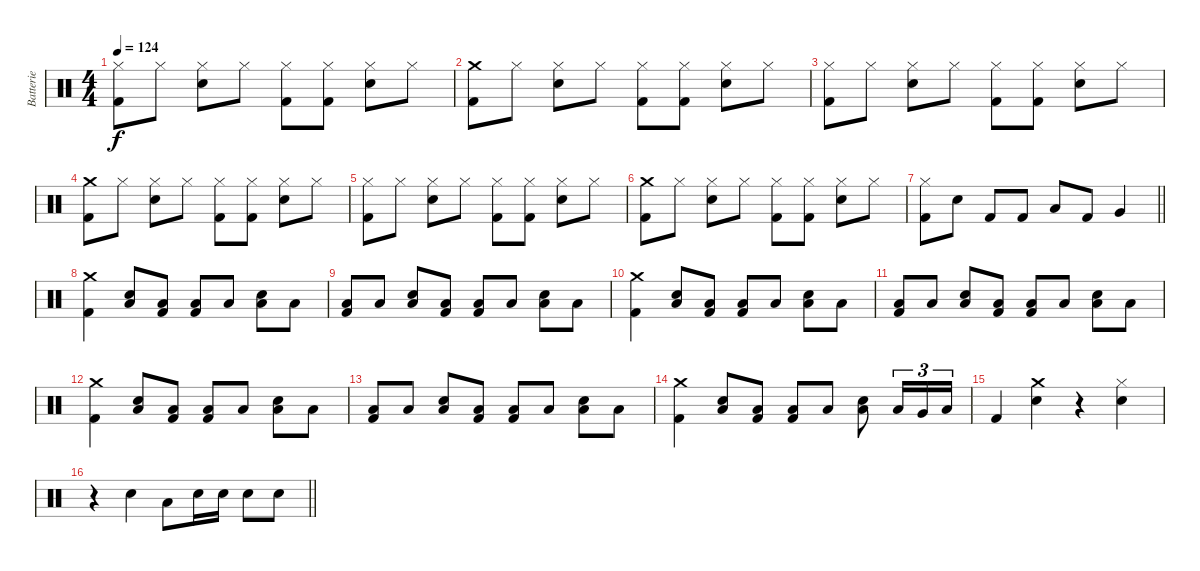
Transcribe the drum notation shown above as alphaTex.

\track ("Batterie" "Batterie") {instrument percussion}
\staff {score}
\articulation defaults
\ts (4 4)
\tempo 124
\clef neutral
\ks c
("Hi-Hat (closed)" "Kick (hit) 2").8{dy f} "Hi-Hat (closed)".8 ("Hi-Hat (closed)" "Snare (hit) 2").8 "Hi-Hat (closed)".8 ("Hi-Hat (closed)" "Kick (hit) 2").8 ("Hi-Hat (closed)" "Kick (hit) 2").8 ("Hi-Hat (closed)" "Snare (hit) 2").8 "Hi-Hat (closed)".8 |
("Crash medium (hit)" "Kick (hit) 2").8 "Hi-Hat (closed)".8 ("Hi-Hat (closed)" "Snare (hit) 2").8 "Hi-Hat (closed)".8 ("Hi-Hat (closed)" "Kick (hit) 2").8 ("Hi-Hat (closed)" "Kick (hit) 2").8 ("Hi-Hat (closed)" "Snare (hit) 2").8 "Hi-Hat (closed)".8 |
("Hi-Hat (closed)" "Kick (hit) 2").8 "Hi-Hat (closed)".8 ("Hi-Hat (closed)" "Snare (hit) 2").8 "Hi-Hat (closed)".8 ("Hi-Hat (closed)" "Kick (hit) 2").8 ("Hi-Hat (closed)" "Kick (hit) 2").8 ("Hi-Hat (closed)" "Snare (hit) 2").8 "Hi-Hat (closed)".8 |
("Crash medium (hit)" "Kick (hit) 2").8 "Hi-Hat (closed)".8 ("Hi-Hat (closed)" "Snare (hit) 2").8 "Hi-Hat (closed)".8 ("Hi-Hat (closed)" "Kick (hit) 2").8 ("Hi-Hat (closed)" "Kick (hit) 2").8 ("Hi-Hat (closed)" "Snare (hit) 2").8 "Hi-Hat (closed)".8 |
("Hi-Hat (closed)" "Kick (hit) 2").8 "Hi-Hat (closed)".8 ("Hi-Hat (closed)" "Snare (hit) 2").8 "Hi-Hat (closed)".8 ("Hi-Hat (closed)" "Kick (hit) 2").8 ("Hi-Hat (closed)" "Kick (hit) 2").8 ("Hi-Hat (closed)" "Snare (hit) 2").8 "Hi-Hat (closed)".8 |
("Crash medium (hit)" "Kick (hit) 2").8 "Hi-Hat (closed)".8 ("Hi-Hat (closed)" "Snare (hit) 2").8 "Hi-Hat (closed)".8 ("Hi-Hat (closed)" "Kick (hit) 2").8 ("Hi-Hat (closed)" "Kick (hit) 2").8 ("Hi-Hat (closed)" "Snare (hit) 2").8 "Hi-Hat (closed)".8 |
\barLineRight lightlight
("Hi-Hat (closed)" "Kick (hit) 2").8 "Snare (hit) 2".8 "Kick (hit) 2".8 "Kick (hit) 2".8 "Low Tom (hit)".8 "Kick (hit) 2".8 "Very Low Tom (hit)".4 |
("Crash medium (hit)" "Kick (hit) 2").4 ("Snare (hit) 2" "Low Floor Tom (hit)").8 ("Low Floor Tom (hit)" "Kick (hit) 2").8 ("Low Floor Tom (hit)" "Kick (hit) 2").8 "Low Floor Tom (hit)".8 ("Snare (hit) 2" "Low Floor Tom (hit)").8 "Low Floor Tom (hit)".8 |
("Low Floor Tom (hit)" "Kick (hit) 2").8 "Low Floor Tom (hit)".8 ("Snare (hit) 2" "Low Floor Tom (hit)").8 ("Low Floor Tom (hit)" "Kick (hit) 2").8 ("Low Floor Tom (hit)" "Kick (hit) 2").8 "Low Floor Tom (hit)".8 ("Snare (hit) 2" "Low Floor Tom (hit)").8 "Low Floor Tom (hit)".8 |
("Crash medium (hit)" "Kick (hit) 2").4 ("Snare (hit) 2" "Low Floor Tom (hit)").8 ("Low Floor Tom (hit)" "Kick (hit) 2").8 ("Low Floor Tom (hit)" "Kick (hit) 2").8 "Low Floor Tom (hit)".8 ("Snare (hit) 2" "Low Floor Tom (hit)").8 "Low Floor Tom (hit)".8 |
("Low Floor Tom (hit)" "Kick (hit) 2").8 "Low Floor Tom (hit)".8 ("Snare (hit) 2" "Low Floor Tom (hit)").8 ("Low Floor Tom (hit)" "Kick (hit) 2").8 ("Low Floor Tom (hit)" "Kick (hit) 2").8 "Low Floor Tom (hit)".8 ("Snare (hit) 2" "Low Floor Tom (hit)").8 "Low Floor Tom (hit)".8 |
("Crash medium (hit)" "Kick (hit) 2").4 ("Snare (hit) 2" "Low Floor Tom (hit)").8 ("Low Floor Tom (hit)" "Kick (hit) 2").8 ("Low Floor Tom (hit)" "Kick (hit) 2").8 "Low Floor Tom (hit)".8 ("Snare (hit) 2" "Low Floor Tom (hit)").8 "Low Floor Tom (hit)".8 |
("Low Floor Tom (hit)" "Kick (hit) 2").8 "Low Floor Tom (hit)".8 ("Snare (hit) 2" "Low Floor Tom (hit)").8 ("Low Floor Tom (hit)" "Kick (hit) 2").8 ("Low Floor Tom (hit)" "Kick (hit) 2").8 "Low Floor Tom (hit)".8 ("Snare (hit) 2" "Low Floor Tom (hit)").8 "Low Floor Tom (hit)".8 |
("Crash medium (hit)" "Kick (hit) 2").4 ("Snare (hit) 2" "Low Floor Tom (hit)").8 ("Low Floor Tom (hit)" "Kick (hit) 2").8 ("Low Floor Tom (hit)" "Kick (hit) 2").8 "Low Floor Tom (hit)".8 ("Snare (hit) 2" "Low Floor Tom (hit)").8 "Low Tom (hit)".16{tu (3 2)} "Very Low Tom (hit)".16{tu (3 2)} "Low Floor Tom (hit)".16{tu (3 2)} |
"Kick (hit) 2".4 ("Crash medium (hit)" "Snare (hit) 2").4 r.4 ("Hi-Hat (closed)" "Snare (hit) 2").4 |
\barLineRight lightlight
r.4 "Snare (hit) 2".4 "Low Tom (hit)".8 "Snare (hit) 2".16 "Snare (hit) 2".16 "Snare (hit) 2".8 "Snare (hit) 2".8
